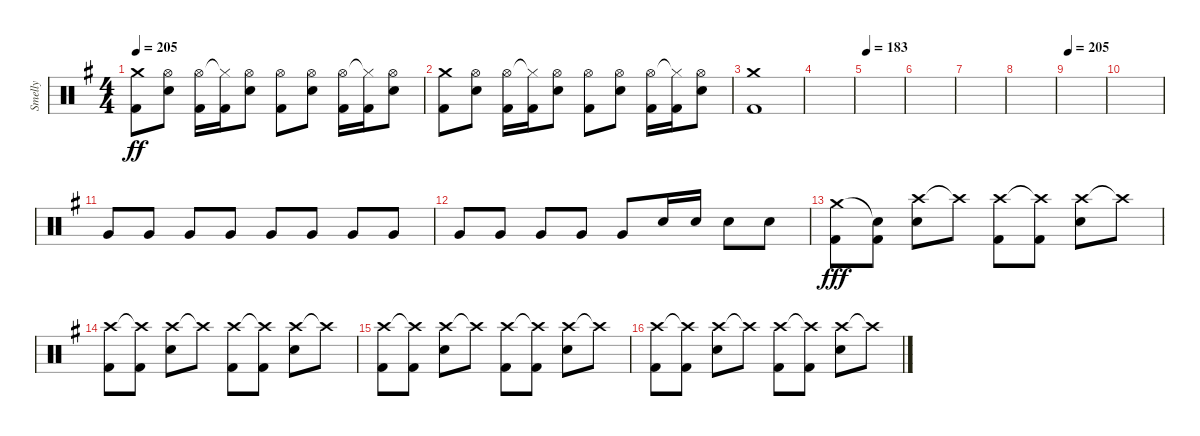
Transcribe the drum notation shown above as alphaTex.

\track ("Smelly" "Smelly") {instrument percussion}
\staff {score}
\articulation defaults
\ts (4 4)
\tempo 205
\clef neutral
\ks eminor
("Crash medium (hit)" "Kick (hit) 2").8{dy ff} ("Hi-Hat (open)" "Electric Snare (hit)").8 ("Hi-Hat (open)" "Kick (hit) 2").16 ("Hi-Hat (closed)"{t} "Kick (hit) 2").16 ("Hi-Hat (open)" "Electric Snare (hit)").8 ("Hi-Hat (open)" "Kick (hit) 2").8 ("Hi-Hat (open)" "Electric Snare (hit)").8 ("Hi-Hat (open)" "Kick (hit) 2").16 ("Hi-Hat (closed)"{t} "Kick (hit) 2").16 ("Hi-Hat (open)" "Electric Snare (hit)").8 |
("Crash medium (hit)" "Kick (hit) 2").8 ("Hi-Hat (open)" "Electric Snare (hit)").8 ("Hi-Hat (open)" "Kick (hit) 2").16 ("Hi-Hat (closed)"{t} "Kick (hit) 2").16 ("Hi-Hat (open)" "Electric Snare (hit)").8 ("Hi-Hat (open)" "Kick (hit) 2").8 ("Hi-Hat (open)" "Electric Snare (hit)").8 ("Hi-Hat (open)" "Kick (hit) 2").16 ("Hi-Hat (closed)"{t} "Kick (hit) 2").16 ("Hi-Hat (open)" "Electric Snare (hit)").8 |
("Crash medium (hit)" "Kick (hit) 2").1 |
|
\tempo 183
|
|
|
|
\tempo 205
|
|
"Very Low Tom (hit)".8{volume 16} "Very Low Tom (hit)".8 "Very Low Tom (hit)".8 "Very Low Tom (hit)".8 "Very Low Tom (hit)".8 "Very Low Tom (hit)".8 "Very Low Tom (hit)".8 "Very Low Tom (hit)".8 |
"Very Low Tom (hit)".8 "Very Low Tom (hit)".8 "Very Low Tom (hit)".8 "Very Low Tom (hit)".8 "Very Low Tom (hit)".8 "Electric Snare (hit)".16 "Electric Snare (hit)".16 "Electric Snare (hit)".8 "Electric Snare (hit)".8 |
("Crash medium (hit)" "Kick (hit) 2").8{dy fff} ("Snare (hit)"{t} "Kick (hit) 2").8 ("Crash high (hit)" "Electric Snare (hit)").8 "Crash high (hit)"{t}.8 ("Crash high (hit)" "Kick (hit) 2").8 ("Crash high (hit)"{t} "Kick (hit) 2").8 ("Crash high (hit)" "Electric Snare (hit)").8 "Crash high (hit)"{t}.8 |
("Crash high (hit)" "Kick (hit) 2").8 ("Crash high (hit)"{t} "Kick (hit) 2").8 ("Crash high (hit)" "Electric Snare (hit)").8 "Crash high (hit)"{t}.8 ("Crash high (hit)" "Kick (hit) 2").8 ("Crash high (hit)"{t} "Kick (hit) 2").8 ("Crash high (hit)" "Electric Snare (hit)").8 "Crash high (hit)"{t}.8 |
("Crash high (hit)" "Kick (hit) 2").8 ("Crash high (hit)"{t} "Kick (hit) 2").8 ("Crash high (hit)" "Electric Snare (hit)").8 "Crash high (hit)"{t}.8 ("Crash high (hit)" "Kick (hit) 2").8 ("Crash high (hit)"{t} "Kick (hit) 2").8 ("Crash high (hit)" "Electric Snare (hit)").8 "Crash high (hit)"{t}.8 |
("Crash high (hit)" "Kick (hit) 2").8 ("Crash high (hit)"{t} "Kick (hit) 2").8 ("Crash high (hit)" "Electric Snare (hit)").8 "Crash high (hit)"{t}.8 ("Crash high (hit)" "Kick (hit) 2").8 ("Crash high (hit)"{t} "Kick (hit) 2").8 ("Crash high (hit)" "Electric Snare (hit)").8 "Crash high (hit)"{t}.8
